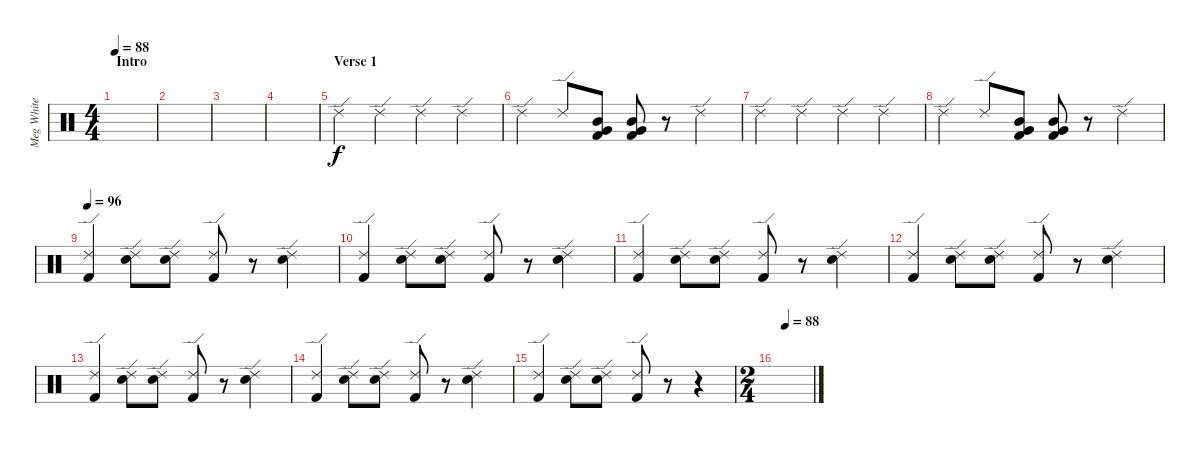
\track ("Meg White - Drums" "Meg White ") {instrument percussion}
\staff {score}
\articulation defaults
\ts (4 4)
\section ("" "Intro")
\tempo 88
\clef neutral
\ks c
|
|
|
|
\section ("" "Verse 1")
"Ride (edge) 2".4 "Ride (edge) 2".4 "Ride (edge) 2".4 "Ride (edge) 2".4 |
"Ride (edge) 2".4 "Ride (edge) 2".8 ("Very Low Tom (hit)" "Mid Tom (hit)" "Kick (hit) 2").8 ("Very Low Tom (hit)" "Mid Tom (hit)" "Kick (hit) 2").8 r.8 "Ride (edge) 2".4 |
"Ride (edge) 2".4 "Ride (edge) 2".4 "Ride (edge) 2".4 "Ride (edge) 2".4 |
"Ride (edge) 2".4 "Ride (edge) 2".8 ("Very Low Tom (hit)" "Mid Tom (hit)" "Kick (hit) 2").8 ("Very Low Tom (hit)" "Mid Tom (hit)" "Kick (hit) 2").8 r.8 "Ride (edge) 2".4 |
\tempo 96
("Ride (edge) 2" "Kick (hit) 2").4 ("Ride (edge) 2" "Snare (hit) 2").8 ("Ride (edge) 2" "Snare (hit) 2").8 ("Ride (edge) 2" "Kick (hit) 2").8 r.8 ("Ride (edge) 2" "Snare (hit) 2").4 |
("Ride (edge) 2" "Kick (hit) 2").4 ("Ride (edge) 2" "Snare (hit) 2").8 ("Ride (edge) 2" "Snare (hit) 2").8 ("Ride (edge) 2" "Kick (hit) 2").8 r.8 ("Ride (edge) 2" "Snare (hit) 2").4 |
("Ride (edge) 2" "Kick (hit) 2").4 ("Ride (edge) 2" "Snare (hit) 2").8 ("Ride (edge) 2" "Snare (hit) 2").8 ("Ride (edge) 2" "Kick (hit) 2").8 r.8 ("Ride (edge) 2" "Snare (hit) 2").4 |
("Ride (edge) 2" "Kick (hit) 2").4 ("Ride (edge) 2" "Snare (hit) 2").8 ("Ride (edge) 2" "Snare (hit) 2").8 ("Ride (edge) 2" "Kick (hit) 2").8 r.8 ("Ride (edge) 2" "Snare (hit) 2").4 |
("Ride (edge) 2" "Kick (hit) 2").4 ("Ride (edge) 2" "Snare (hit) 2").8 ("Ride (edge) 2" "Snare (hit) 2").8 ("Ride (edge) 2" "Kick (hit) 2").8 r.8 ("Ride (edge) 2" "Snare (hit) 2").4 |
("Ride (edge) 2" "Kick (hit) 2").4 ("Ride (edge) 2" "Snare (hit) 2").8 ("Ride (edge) 2" "Snare (hit) 2").8 ("Ride (edge) 2" "Kick (hit) 2").8 r.8 ("Ride (edge) 2" "Snare (hit) 2").4 |
("Ride (edge) 2" "Kick (hit) 2").4 ("Ride (edge) 2" "Snare (hit) 2").8 ("Ride (edge) 2" "Snare (hit) 2").8 ("Ride (edge) 2" "Kick (hit) 2").8 r.8 r.4 |
\ts (2 4)
\tempo (88 0.25)
